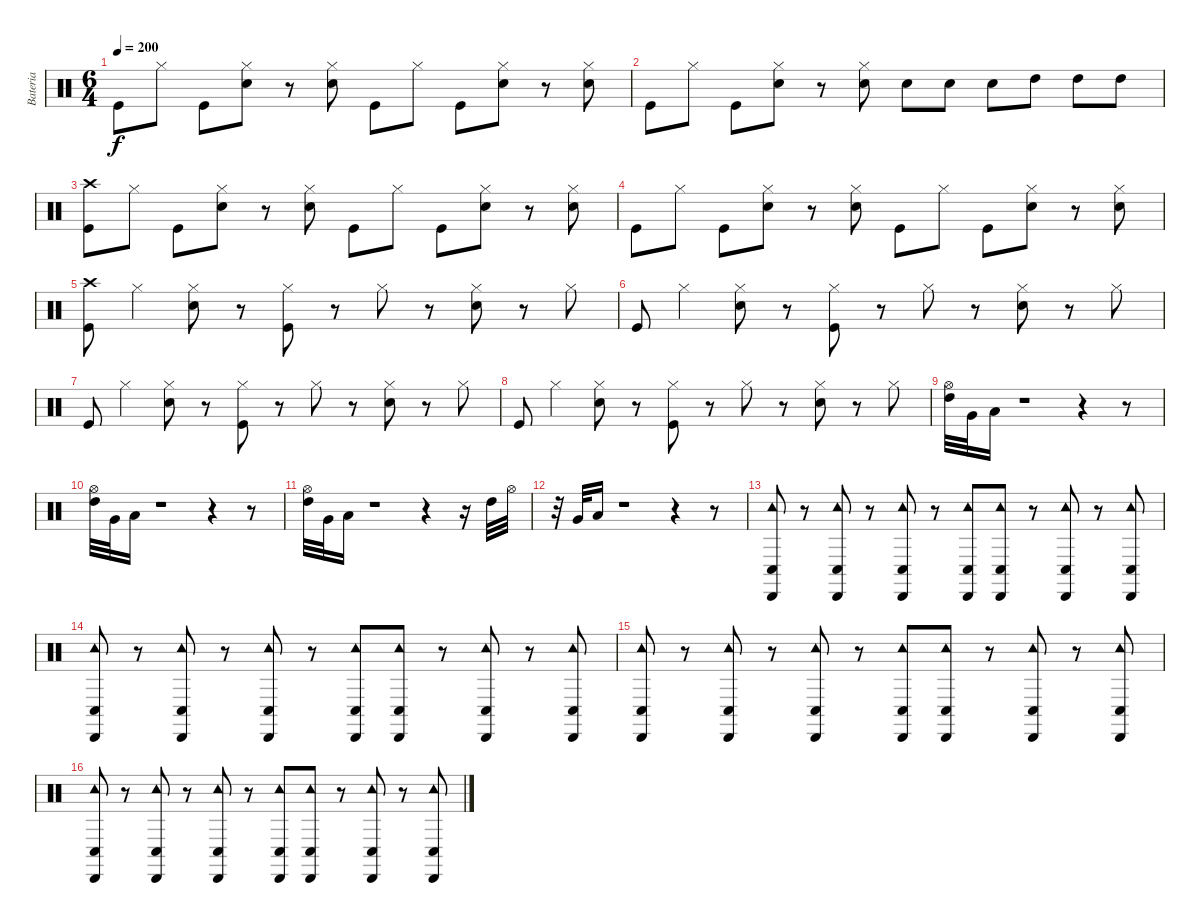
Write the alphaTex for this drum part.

\track ("Bateria" "Bateria") {instrument percussion}
\staff {score}
\articulation defaults
\ts (6 4)
\tempo 200
\clef neutral
\ks c "Kick (hit)".8{dy f} "Hi-Hat (closed)".8 "Kick (hit)".8
("Electric Snare (hit)" "Hi-Hat (closed)").8 r.8 ("Electric Snare (hit)" "Hi-Hat (closed)").8 "Kick (hit)".8 "Hi-Hat (closed)".8 "Kick (hit)".8 ("Electric Snare (hit)" "Hi-Hat (closed)").8 r.8 ("Electric Snare (hit)" "Hi-Hat (closed)").8 |
"Kick (hit)".8 "Hi-Hat (closed)".8 "Kick (hit)".8 ("Electric Snare (hit)" "Hi-Hat (closed)").8 r.8 ("Electric Snare (hit)" "Hi-Hat (closed)").8 "Electric Snare (hit)".8 "Electric Snare (hit)".8 "Electric Snare (hit)".8 "High Tom (hit)".8 "High Tom (hit)".8 "High Tom (hit)".8 |
("Crash high (hit)" "Kick (hit)").8 "Hi-Hat (closed)".8 "Kick (hit)".8 ("Electric Snare (hit)" "Hi-Hat (closed)").8 r.8 ("Electric Snare (hit)" "Hi-Hat (closed)").8 "Kick (hit)".8 "Hi-Hat (closed)".8 "Kick (hit)".8 ("Electric Snare (hit)" "Hi-Hat (closed)").8 r.8 ("Electric Snare (hit)" "Hi-Hat (closed)").8 |
"Kick (hit)".8 "Hi-Hat (closed)".8 "Kick (hit)".8 ("Electric Snare (hit)" "Hi-Hat (closed)").8 r.8 ("Electric Snare (hit)" "Hi-Hat (closed)").8 "Kick (hit)".8 "Hi-Hat (closed)".8 "Kick (hit)".8 ("Electric Snare (hit)" "Hi-Hat (closed)").8 r.8 ("Electric Snare (hit)" "Hi-Hat (closed)").8 |
("Crash high (hit)" "Kick (hit)").8 "Hi-Hat (closed)".4 ("Hi-Hat (closed)" "Electric Snare (hit)").8 r.8 ("Hi-Hat (closed)" "Kick (hit)").8 r.8 "Hi-Hat (closed)".8 r.8 ("Hi-Hat (closed)" "Electric Snare (hit)").8 r.8 "Hi-Hat (closed)".8 |
"Kick (hit)".8 "Hi-Hat (closed)".4 ("Hi-Hat (closed)" "Electric Snare (hit)").8 r.8 ("Hi-Hat (closed)" "Kick (hit)").8 r.8 "Hi-Hat (closed)".8 r.8 ("Hi-Hat (closed)" "Electric Snare (hit)").8 r.8 "Hi-Hat (closed)".8 |
"Kick (hit)".8 "Hi-Hat (closed)".4 ("Hi-Hat (closed)" "Electric Snare (hit)").8 r.8 ("Hi-Hat (closed)" "Kick (hit)").8 r.8 "Hi-Hat (closed)".8 r.8 ("Hi-Hat (closed)" "Electric Snare (hit)").8 r.8 "Hi-Hat (closed)".8 |
"Kick (hit)".8 "Hi-Hat (closed)".4 ("Hi-Hat (closed)" "Electric Snare (hit)").8 r.8 ("Hi-Hat (closed)" "Kick (hit)").8 r.8 "Hi-Hat (closed)".8 r.8 ("Hi-Hat (closed)" "Electric Snare (hit)").8 r.8 "Hi-Hat (closed)".8 |
("Hi-Hat (open)" "High Tom (hit)").32 "Very Low Tom (hit)".32 "Low Floor Tom (hit)".16 r.1 r.4 r.8 |
("Hi-Hat (open)" "High Tom (hit)").32 "Very Low Tom (hit)".32 "Low Floor Tom (hit)".16 r.1 r.4 r.8 |
("Hi-Hat (open)" "High Tom (hit)").32 "Very Low Tom (hit)".32 "Low Floor Tom (hit)".16 r.1 r.4 r.16 "High Tom (hit)".32 "Hi-Hat (open)".32 |
r.32 "Very Low Tom (hit)".32 "Low Floor Tom (hit)".16 r.1 r.4 r.8 |
("Conga low (hit)" "Cabasa (hit)" "Tambourine (hit)").8 r.8 ("Conga low (hit)" "Cabasa (hit)" "Tambourine (hit)").8 r.8 ("Conga low (hit)" "Cabasa (hit)" "Tambourine (hit)").8 r.8 ("Conga low (hit)" "Cabasa (hit)" "Tambourine (hit)").8 ("Conga low (hit)" "Cabasa (hit)" "Tambourine (hit)").8 r.8 ("Conga low (hit)" "Cabasa (hit)" "Tambourine (hit)").8 r.8 ("Conga low (hit)" "Cabasa (hit)" "Tambourine (hit)").8 |
("Conga low (hit)" "Cabasa (hit)" "Tambourine (hit)").8 r.8 ("Conga low (hit)" "Cabasa (hit)" "Tambourine (hit)").8 r.8 ("Conga low (hit)" "Cabasa (hit)" "Tambourine (hit)").8 r.8 ("Conga low (hit)" "Cabasa (hit)" "Tambourine (hit)").8 ("Conga low (hit)" "Cabasa (hit)" "Tambourine (hit)").8 r.8 ("Conga low (hit)" "Cabasa (hit)" "Tambourine (hit)").8 r.8 ("Conga low (hit)" "Cabasa (hit)" "Tambourine (hit)").8 |
("Conga low (hit)" "Cabasa (hit)" "Tambourine (hit)").8 r.8 ("Conga low (hit)" "Cabasa (hit)" "Tambourine (hit)").8 r.8 ("Conga low (hit)" "Cabasa (hit)" "Tambourine (hit)").8 r.8 ("Conga low (hit)" "Cabasa (hit)" "Tambourine (hit)").8 ("Conga low (hit)" "Cabasa (hit)" "Tambourine (hit)").8 r.8 ("Conga low (hit)" "Cabasa (hit)" "Tambourine (hit)").8 r.8 ("Conga low (hit)" "Cabasa (hit)" "Tambourine (hit)").8 |
("Conga low (hit)" "Cabasa (hit)" "Tambourine (hit)").8 r.8 ("Conga low (hit)" "Cabasa (hit)" "Tambourine (hit)").8 r.8 ("Conga low (hit)" "Cabasa (hit)" "Tambourine (hit)").8 r.8 ("Conga low (hit)" "Cabasa (hit)" "Tambourine (hit)").8 ("Conga low (hit)" "Cabasa (hit)" "Tambourine (hit)").8 r.8 ("Conga low (hit)" "Cabasa (hit)" "Tambourine (hit)").8 r.8 ("Conga low (hit)" "Cabasa (hit)" "Tambourine (hit)").8
